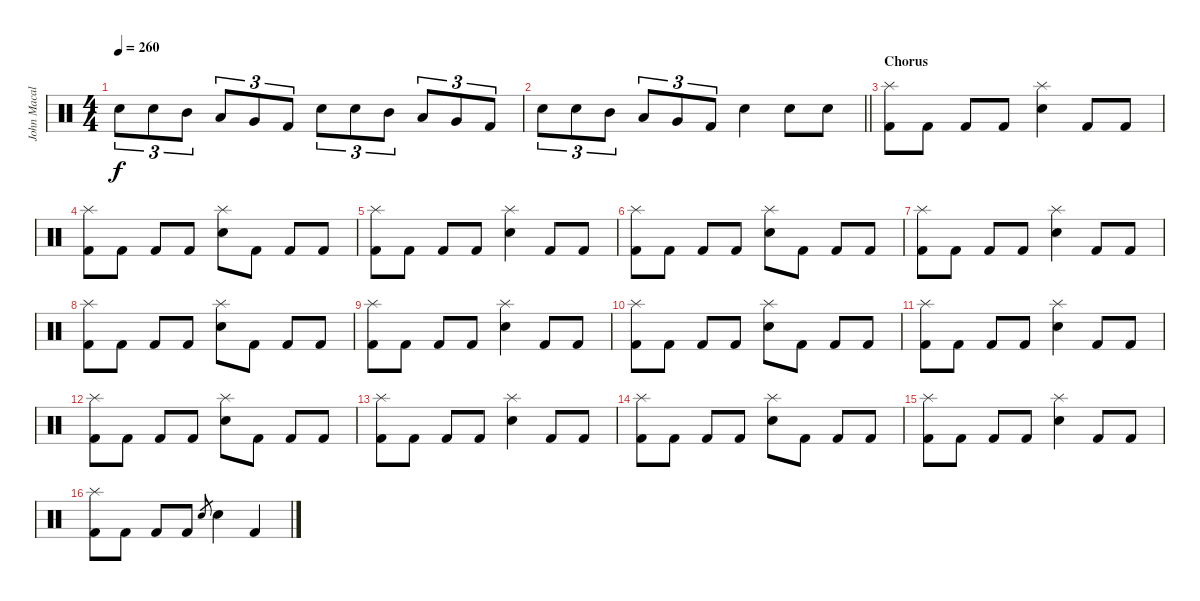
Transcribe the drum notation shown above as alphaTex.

\track ("John Macaluso" "John Macal") {instrument percussion}
\staff {score}
\articulation defaults
\ts (4 4)
\tempo 260
\clef neutral
\ks c "Snare (hit) 2".8{tu (3 2) dy f} "Snare (hit) 2".8{tu (3 2)} "Mid Tom (hit)".8{tu (3 2)} "Low Tom (hit)".8{tu (3 2)} "Very Low Tom (hit)".8{tu (3 2)} "Kick (hit) 2".8{tu (3 2)} "Snare (hit) 2".8{tu (3 2)} "Snare (hit) 2".8{tu (3 2)} "Mid Tom (hit)".8{tu (3 2)} "Low Tom (hit)".8{tu (3 2)} "Very Low Tom (hit)".8{tu (3 2)} "Kick (hit) 2".8{tu (3 2)}
|
\barLineRight lightlight "Snare (hit) 2".8{tu (3 2)} "Snare (hit) 2".8{tu (3 2)} "Mid Tom (hit)".8{tu (3 2)} "Low Tom (hit)".8{tu (3 2)} "Very Low Tom (hit)".8{tu (3 2)} "Kick (hit) 2".8{tu (3 2)} "Snare (hit) 2".4 "Snare (hit) 2".8 "Snare (hit) 2".8
|
\section ("" "Chorus")
("Splash (hit)" "Kick (hit) 2").8 "Kick (hit) 2".8 "Kick (hit) 2".8 "Kick (hit) 2".8 ("Splash (hit)" "Snare (hit) 2").4 "Kick (hit) 2".8 "Kick (hit) 2".8 |
("Splash (hit)" "Kick (hit) 2").8 "Kick (hit) 2".8 "Kick (hit) 2".8 "Kick (hit) 2".8 ("Splash (hit)" "Snare (hit) 2").8 "Kick (hit) 2".8 "Kick (hit) 2".8 "Kick (hit) 2".8 |
("Splash (hit)" "Kick (hit) 2").8 "Kick (hit) 2".8 "Kick (hit) 2".8 "Kick (hit) 2".8 ("Splash (hit)" "Snare (hit) 2").4 "Kick (hit) 2".8 "Kick (hit) 2".8 |
("Splash (hit)" "Kick (hit) 2").8 "Kick (hit) 2".8 "Kick (hit) 2".8 "Kick (hit) 2".8 ("Splash (hit)" "Snare (hit) 2").8 "Kick (hit) 2".8 "Kick (hit) 2".8 "Kick (hit) 2".8 |
("Splash (hit)" "Kick (hit) 2").8 "Kick (hit) 2".8 "Kick (hit) 2".8 "Kick (hit) 2".8 ("Splash (hit)" "Snare (hit) 2").4 "Kick (hit) 2".8 "Kick (hit) 2".8 |
("Splash (hit)" "Kick (hit) 2").8 "Kick (hit) 2".8 "Kick (hit) 2".8 "Kick (hit) 2".8 ("Splash (hit)" "Snare (hit) 2").8 "Kick (hit) 2".8 "Kick (hit) 2".8 "Kick (hit) 2".8 |
("Splash (hit)" "Kick (hit) 2").8 "Kick (hit) 2".8 "Kick (hit) 2".8 "Kick (hit) 2".8 ("Splash (hit)" "Snare (hit) 2").4 "Kick (hit) 2".8 "Kick (hit) 2".8 |
("Splash (hit)" "Kick (hit) 2").8 "Kick (hit) 2".8 "Kick (hit) 2".8 "Kick (hit) 2".8 ("Splash (hit)" "Snare (hit) 2").8 "Kick (hit) 2".8 "Kick (hit) 2".8 "Kick (hit) 2".8 |
("Splash (hit)" "Kick (hit) 2").8 "Kick (hit) 2".8 "Kick (hit) 2".8 "Kick (hit) 2".8 ("Splash (hit)" "Snare (hit) 2").4 "Kick (hit) 2".8 "Kick (hit) 2".8 |
("Splash (hit)" "Kick (hit) 2").8 "Kick (hit) 2".8 "Kick (hit) 2".8 "Kick (hit) 2".8 ("Splash (hit)" "Snare (hit) 2").8 "Kick (hit) 2".8 "Kick (hit) 2".8 "Kick (hit) 2".8 |
("Splash (hit)" "Kick (hit) 2").8 "Kick (hit) 2".8 "Kick (hit) 2".8 "Kick (hit) 2".8 ("Splash (hit)" "Snare (hit) 2").4 "Kick (hit) 2".8 "Kick (hit) 2".8 |
("Splash (hit)" "Kick (hit) 2").8 "Kick (hit) 2".8 "Kick (hit) 2".8 "Kick (hit) 2".8 ("Splash (hit)" "Snare (hit) 2").8 "Kick (hit) 2".8 "Kick (hit) 2".8 "Kick (hit) 2".8 |
("Splash (hit)" "Kick (hit) 2").8 "Kick (hit) 2".8 "Kick (hit) 2".8 "Kick (hit) 2".8 ("Splash (hit)" "Snare (hit) 2").4 "Kick (hit) 2".8 "Kick (hit) 2".8 |
("Splash (hit)" "Kick (hit) 2").8 "Kick (hit) 2".8 "Kick (hit) 2".8 "Kick (hit) 2".8 "Snare (hit) 2".8{gr} "Snare (hit) 2".4 "Kick (hit) 2".4
